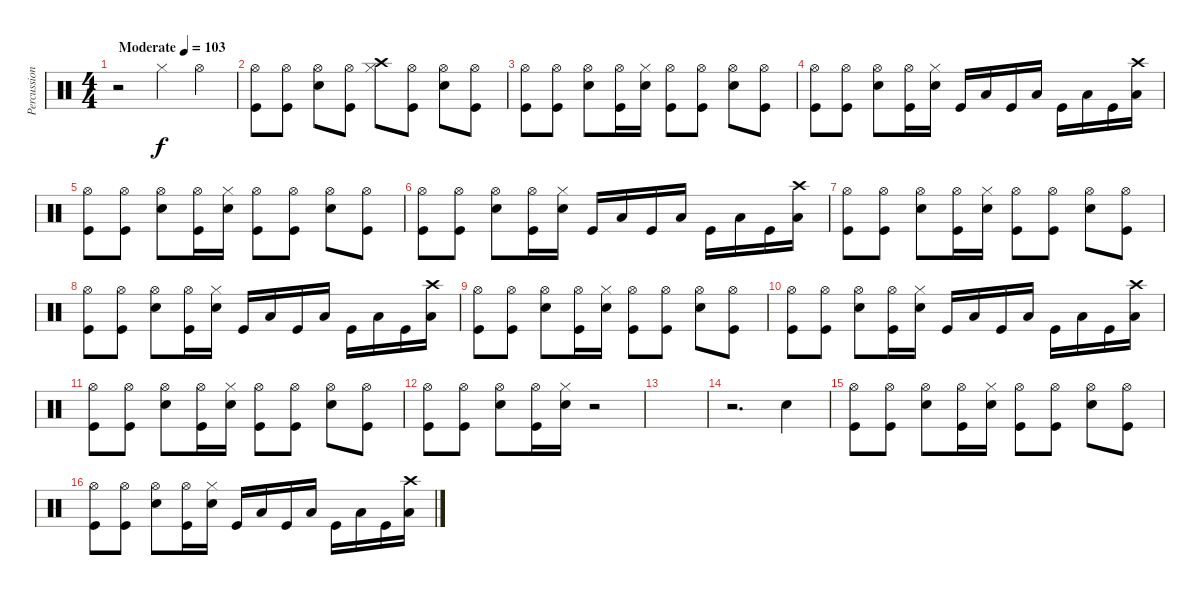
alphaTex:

\track ("Percussion" "Percussion") {instrument percussion}
\staff {score}
\articulation defaults
\ts (4 4)
\tempo (103 "Moderate")
\clef neutral
\ks c
r.2{dy f} "Hi-Hat (closed)".4 "Hi-Hat (open)".4 |
("Kick (hit)" "Hi-Hat (open)").8 ("Kick (hit)" "Hi-Hat (open)").8 ("Snare (hit) 2" "Hi-Hat (open)").8 ("Kick (hit)" "Hi-Hat (open)").8 ("Hi-Hat (closed)" "Crash high (hit)").8 ("Kick (hit)" "Hi-Hat (open)").8 ("Snare (hit) 2" "Hi-Hat (open)").8 ("Kick (hit)" "Hi-Hat (open)").8 |
("Kick (hit)" "Hi-Hat (open)").8 ("Kick (hit)" "Hi-Hat (open)").8 ("Snare (hit) 2" "Hi-Hat (open)").8 ("Kick (hit)" "Hi-Hat (open)").16 ("Snare (hit) 2" "Hi-Hat (closed)").16 ("Kick (hit)" "Hi-Hat (open)").8 ("Kick (hit)" "Hi-Hat (open)").8 ("Snare (hit) 2" "Hi-Hat (open)").8 ("Kick (hit)" "Hi-Hat (open)").8 |
("Kick (hit)" "Hi-Hat (open)").8 ("Kick (hit)" "Hi-Hat (open)").8 ("Snare (hit) 2" "Hi-Hat (open)").8 ("Kick (hit)" "Hi-Hat (open)").16 ("Snare (hit) 2" "Hi-Hat (closed)").16 "Kick (hit)".16 "Low Floor Tom (hit)".16 "Kick (hit)".16 "Low Floor Tom (hit)".16 "Kick (hit)".16 "Low Floor Tom (hit)".16 "Kick (hit)".16 ("Low Floor Tom (hit)" "Crash high (hit)").16 |
("Kick (hit)" "Hi-Hat (open)").8 ("Kick (hit)" "Hi-Hat (open)").8 ("Snare (hit) 2" "Hi-Hat (open)").8 ("Kick (hit)" "Hi-Hat (open)").16 ("Snare (hit) 2" "Hi-Hat (closed)").16 ("Kick (hit)" "Hi-Hat (open)").8 ("Kick (hit)" "Hi-Hat (open)").8 ("Snare (hit) 2" "Hi-Hat (open)").8 ("Kick (hit)" "Hi-Hat (open)").8 |
("Kick (hit)" "Hi-Hat (open)").8 ("Kick (hit)" "Hi-Hat (open)").8 ("Snare (hit) 2" "Hi-Hat (open)").8 ("Kick (hit)" "Hi-Hat (open)").16 ("Snare (hit) 2" "Hi-Hat (closed)").16 "Kick (hit)".16 "Low Floor Tom (hit)".16 "Kick (hit)".16 "Low Floor Tom (hit)".16 "Kick (hit)".16 "Low Floor Tom (hit)".16 "Kick (hit)".16 ("Low Floor Tom (hit)" "Crash high (hit)").16 |
("Kick (hit)" "Hi-Hat (open)").8 ("Kick (hit)" "Hi-Hat (open)").8 ("Snare (hit) 2" "Hi-Hat (open)").8 ("Kick (hit)" "Hi-Hat (open)").16 ("Snare (hit) 2" "Hi-Hat (closed)").16 ("Kick (hit)" "Hi-Hat (open)").8 ("Kick (hit)" "Hi-Hat (open)").8 ("Snare (hit) 2" "Hi-Hat (open)").8 ("Kick (hit)" "Hi-Hat (open)").8 |
("Kick (hit)" "Hi-Hat (open)").8 ("Kick (hit)" "Hi-Hat (open)").8 ("Snare (hit) 2" "Hi-Hat (open)").8 ("Kick (hit)" "Hi-Hat (open)").16 ("Snare (hit) 2" "Hi-Hat (closed)").16 "Kick (hit)".16 "Low Floor Tom (hit)".16 "Kick (hit)".16 "Low Floor Tom (hit)".16 "Kick (hit)".16 "Low Floor Tom (hit)".16 "Kick (hit)".16 ("Low Floor Tom (hit)" "Crash high (hit)").16 |
("Kick (hit)" "Hi-Hat (open)").8 ("Kick (hit)" "Hi-Hat (open)").8 ("Snare (hit) 2" "Hi-Hat (open)").8 ("Kick (hit)" "Hi-Hat (open)").16 ("Snare (hit) 2" "Hi-Hat (closed)").16 ("Kick (hit)" "Hi-Hat (open)").8 ("Kick (hit)" "Hi-Hat (open)").8 ("Snare (hit) 2" "Hi-Hat (open)").8 ("Kick (hit)" "Hi-Hat (open)").8 |
("Kick (hit)" "Hi-Hat (open)").8 ("Kick (hit)" "Hi-Hat (open)").8 ("Snare (hit) 2" "Hi-Hat (open)").8 ("Kick (hit)" "Hi-Hat (open)").16 ("Snare (hit) 2" "Hi-Hat (closed)").16 "Kick (hit)".16 "Low Floor Tom (hit)".16 "Kick (hit)".16 "Low Floor Tom (hit)".16 "Kick (hit)".16 "Low Floor Tom (hit)".16 "Kick (hit)".16 ("Low Floor Tom (hit)" "Crash high (hit)").16 |
("Kick (hit)" "Hi-Hat (open)").8 ("Kick (hit)" "Hi-Hat (open)").8 ("Snare (hit) 2" "Hi-Hat (open)").8 ("Kick (hit)" "Hi-Hat (open)").16 ("Snare (hit) 2" "Hi-Hat (closed)").16 ("Kick (hit)" "Hi-Hat (open)").8 ("Kick (hit)" "Hi-Hat (open)").8 ("Snare (hit) 2" "Hi-Hat (open)").8 ("Kick (hit)" "Hi-Hat (open)").8 |
("Kick (hit)" "Hi-Hat (open)").8 ("Kick (hit)" "Hi-Hat (open)").8 ("Snare (hit) 2" "Hi-Hat (open)").8 ("Kick (hit)" "Hi-Hat (open)").16 ("Snare (hit) 2" "Hi-Hat (closed)").16 r.2 |
|
r.2{d} "Snare (hit) 2".4 |
("Kick (hit)" "Hi-Hat (open)").8 ("Kick (hit)" "Hi-Hat (open)").8 ("Snare (hit) 2" "Hi-Hat (open)").8 ("Kick (hit)" "Hi-Hat (open)").16 ("Snare (hit) 2" "Hi-Hat (closed)").16 ("Kick (hit)" "Hi-Hat (open)").8 ("Kick (hit)" "Hi-Hat (open)").8 ("Snare (hit) 2" "Hi-Hat (open)").8 ("Kick (hit)" "Hi-Hat (open)").8 |
("Kick (hit)" "Hi-Hat (open)").8 ("Kick (hit)" "Hi-Hat (open)").8 ("Snare (hit) 2" "Hi-Hat (open)").8 ("Kick (hit)" "Hi-Hat (open)").16 ("Snare (hit) 2" "Hi-Hat (closed)").16 "Kick (hit)".16 "Low Floor Tom (hit)".16 "Kick (hit)".16 "Low Floor Tom (hit)".16 "Kick (hit)".16 "Low Floor Tom (hit)".16 "Kick (hit)".16 ("Low Floor Tom (hit)" "Crash high (hit)").16
